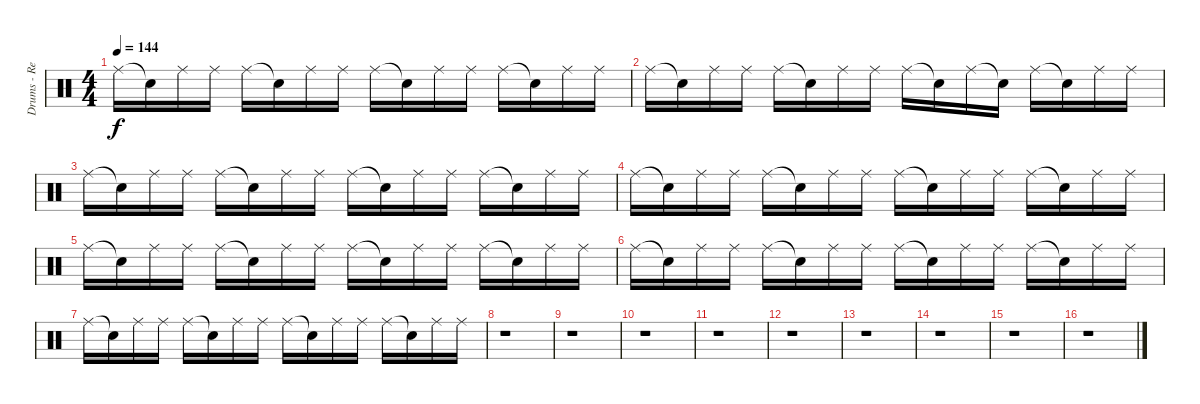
\track ("Drums - Reni" "Drums - Re") {instrument percussion}
\staff {score}
\articulation defaults
\ts (4 4)
\tempo 144
\clef neutral
\ks c "Ride (middle)".16{dy f} "Snare (hit)"{t}.16 "Ride (middle)".16 "Ride (middle)".16 "Ride (middle)".16 "Snare (hit)"{t}.16 "Ride (middle)".16 "Ride (middle)".16 "Ride (middle)".16 "Snare (hit)"{t}.16 "Ride (middle)".16 "Ride (middle)".16 "Ride (middle)".16 "Snare (hit)"{t}.16 "Ride (middle)".16 "Ride (middle)".16
|
"Ride (middle)".16 "Snare (hit)"{t}.16 "Ride (middle)".16 "Ride (middle)".16 "Ride (middle)".16 "Snare (hit)"{t}.16 "Ride (middle)".16 "Ride (middle)".16 "Ride (middle)".16 "Snare (hit)"{t}.16 "Ride (middle)".16 "Snare (hit)"{t}.16 "Ride (middle)".16 "Snare (hit)"{t}.16 "Ride (middle)".16 "Ride (middle)".16 |
"Ride (middle)".16 "Snare (hit)"{t}.16 "Ride (middle)".16 "Ride (middle)".16 "Ride (middle)".16 "Snare (hit)"{t}.16 "Ride (middle)".16 "Ride (middle)".16 "Ride (middle)".16 "Snare (hit)"{t}.16 "Ride (middle)".16 "Ride (middle)".16 "Ride (middle)".16 "Snare (hit)"{t}.16 "Ride (middle)".16 "Ride (middle)".16 |
"Ride (middle)".16 "Snare (hit)"{t}.16 "Ride (middle)".16 "Ride (middle)".16 "Ride (middle)".16 "Snare (hit)"{t}.16 "Ride (middle)".16 "Ride (middle)".16 "Ride (middle)".16 "Snare (hit)"{t}.16 "Ride (middle)".16 "Ride (middle)".16 "Ride (middle)".16 "Snare (hit)"{t}.16 "Ride (middle)".16 "Ride (middle)".16 |
"Ride (middle)".16 "Snare (hit)"{t}.16 "Ride (middle)".16 "Ride (middle)".16 "Ride (middle)".16 "Snare (hit)"{t}.16 "Ride (middle)".16 "Ride (middle)".16 "Ride (middle)".16 "Snare (hit)"{t}.16 "Ride (middle)".16 "Ride (middle)".16 "Ride (middle)".16 "Snare (hit)"{t}.16 "Ride (middle)".16 "Ride (middle)".16 |
"Ride (middle)".16 "Snare (hit)"{t}.16 "Ride (middle)".16 "Ride (middle)".16 "Ride (middle)".16 "Snare (hit)"{t}.16 "Ride (middle)".16 "Ride (middle)".16 "Ride (middle)".16 "Snare (hit)"{t}.16 "Ride (middle)".16 "Ride (middle)".16 "Ride (middle)".16 "Snare (hit)"{t}.16 "Ride (middle)".16 "Ride (middle)".16 |
"Ride (middle)".16 "Snare (hit)"{t}.16 "Ride (middle)".16 "Ride (middle)".16 "Ride (middle)".16 "Snare (hit)"{t}.16 "Ride (middle)".16 "Ride (middle)".16 "Ride (middle)".16 "Snare (hit)"{t}.16 "Ride (middle)".16 "Ride (middle)".16 "Ride (middle)".16 "Snare (hit)"{t}.16 "Ride (middle)".16 "Ride (middle)".16 |
r.1 |
r.1 |
r.1 |
r.1 |
r.1 |
r.1 |
r.1 |
r.1 |
r.1
